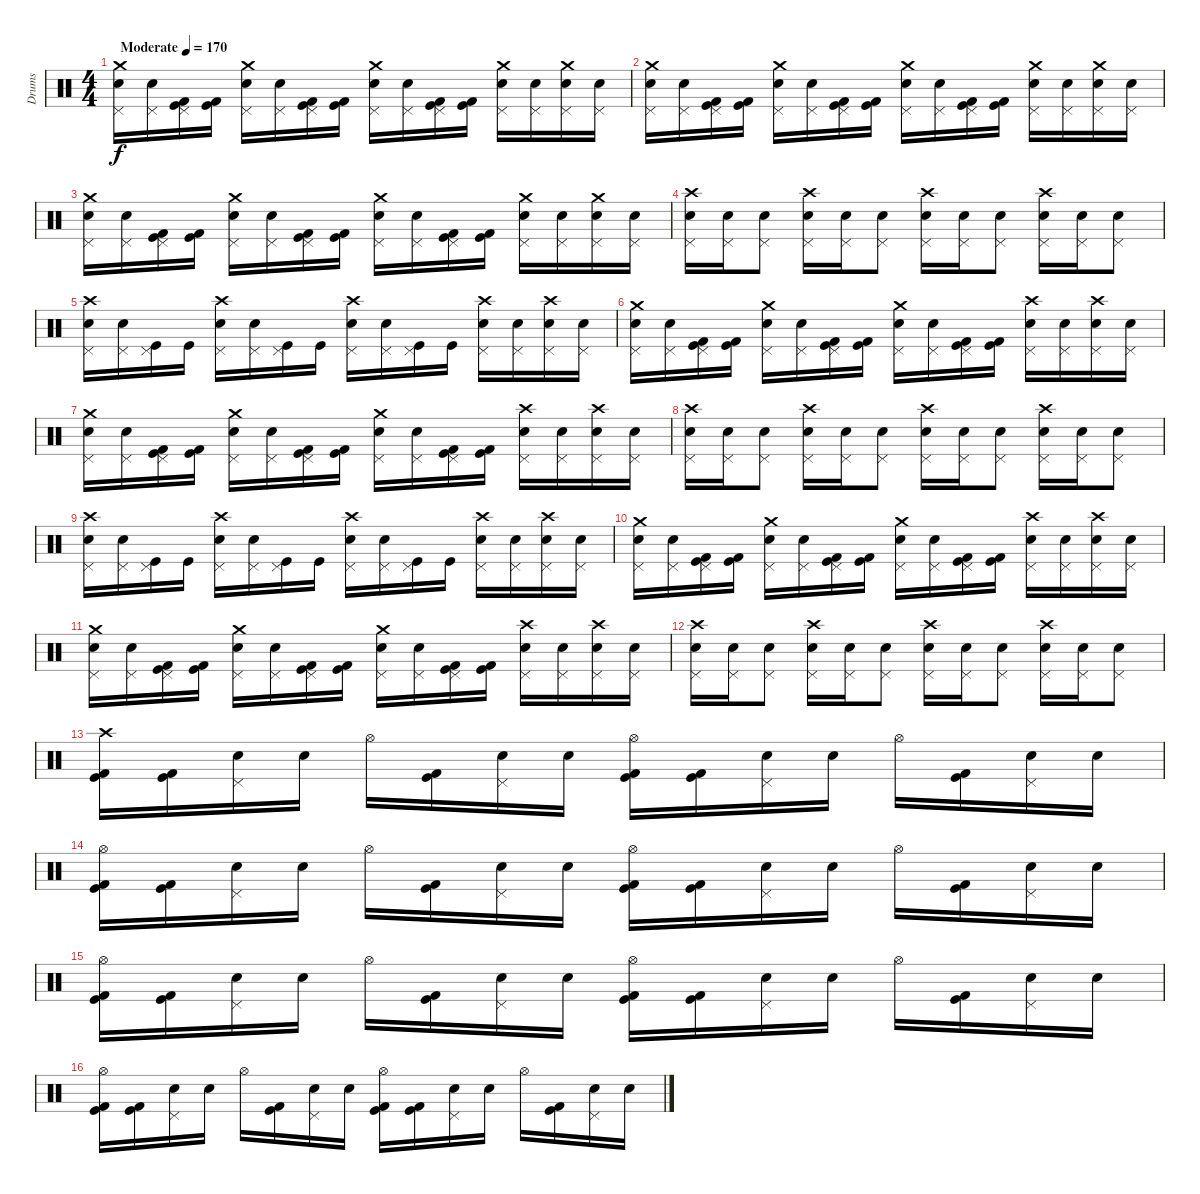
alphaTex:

\track ("Drums" "Drums") {instrument percussion}
\staff {score}
\articulation defaults
\ts (4 4)
\tempo (170 "Moderate")
\clef neutral
\ks c
("Crash medium (hit)" "Pedal Hi-Hat (hit)" "Electric Snare (hit)").16{dy f} ("Pedal Hi-Hat (hit)" "Electric Snare (hit)").16 ("Pedal Hi-Hat (hit)" "Kick (hit) 2" "Kick (hit)").16 ("Kick (hit) 2" "Kick (hit)").16 ("Crash medium (hit)" "Pedal Hi-Hat (hit)" "Electric Snare (hit)").16 ("Pedal Hi-Hat (hit)" "Electric Snare (hit)").16 ("Pedal Hi-Hat (hit)" "Kick (hit) 2" "Kick (hit)").16 ("Kick (hit) 2" "Kick (hit)").16 ("Crash medium (hit)" "Pedal Hi-Hat (hit)" "Electric Snare (hit)").16 ("Pedal Hi-Hat (hit)" "Electric Snare (hit)").16 ("Pedal Hi-Hat (hit)" "Kick (hit) 2" "Kick (hit)").16 ("Kick (hit) 2" "Kick (hit)").16 ("Crash medium (hit)" "Pedal Hi-Hat (hit)" "Electric Snare (hit)").16 ("Pedal Hi-Hat (hit)" "Electric Snare (hit)").16 ("Crash medium (hit)" "Pedal Hi-Hat (hit)" "Electric Snare (hit)").16 ("Pedal Hi-Hat (hit)" "Electric Snare (hit)").16 |
("Crash medium (hit)" "Pedal Hi-Hat (hit)" "Electric Snare (hit)").16 ("Pedal Hi-Hat (hit)" "Electric Snare (hit)").16 ("Pedal Hi-Hat (hit)" "Kick (hit) 2" "Kick (hit)").16 ("Kick (hit) 2" "Kick (hit)").16 ("Crash medium (hit)" "Pedal Hi-Hat (hit)" "Electric Snare (hit)").16 ("Pedal Hi-Hat (hit)" "Electric Snare (hit)").16 ("Pedal Hi-Hat (hit)" "Kick (hit) 2" "Kick (hit)").16 ("Kick (hit) 2" "Kick (hit)").16 ("Crash medium (hit)" "Pedal Hi-Hat (hit)" "Electric Snare (hit)").16 ("Pedal Hi-Hat (hit)" "Electric Snare (hit)").16 ("Pedal Hi-Hat (hit)" "Kick (hit) 2" "Kick (hit)").16 ("Kick (hit) 2" "Kick (hit)").16 ("Crash medium (hit)" "Pedal Hi-Hat (hit)" "Electric Snare (hit)").16 ("Pedal Hi-Hat (hit)" "Electric Snare (hit)").16 ("Crash medium (hit)" "Pedal Hi-Hat (hit)" "Electric Snare (hit)").16 ("Pedal Hi-Hat (hit)" "Electric Snare (hit)").16 |
("Crash medium (hit)" "Pedal Hi-Hat (hit)" "Electric Snare (hit)").16 ("Pedal Hi-Hat (hit)" "Electric Snare (hit)").16 ("Pedal Hi-Hat (hit)" "Kick (hit) 2" "Kick (hit)").16 ("Kick (hit) 2" "Kick (hit)").16 ("Crash medium (hit)" "Pedal Hi-Hat (hit)" "Electric Snare (hit)").16 ("Pedal Hi-Hat (hit)" "Electric Snare (hit)").16 ("Pedal Hi-Hat (hit)" "Kick (hit) 2" "Kick (hit)").16 ("Kick (hit) 2" "Kick (hit)").16 ("Crash medium (hit)" "Pedal Hi-Hat (hit)" "Electric Snare (hit)").16 ("Pedal Hi-Hat (hit)" "Electric Snare (hit)").16 ("Pedal Hi-Hat (hit)" "Kick (hit) 2" "Kick (hit)").16 ("Kick (hit) 2" "Kick (hit)").16 ("Crash medium (hit)" "Pedal Hi-Hat (hit)" "Electric Snare (hit)").16 ("Pedal Hi-Hat (hit)" "Electric Snare (hit)").16 ("Crash medium (hit)" "Pedal Hi-Hat (hit)" "Electric Snare (hit)").16 ("Pedal Hi-Hat (hit)" "Electric Snare (hit)").16 |
("Crash high (hit)" "Pedal Hi-Hat (hit)" "Electric Snare (hit)").16 ("Pedal Hi-Hat (hit)" "Electric Snare (hit)").16 ("Pedal Hi-Hat (hit)" "Electric Snare (hit)").8 ("Crash high (hit)" "Pedal Hi-Hat (hit)" "Electric Snare (hit)").16 ("Pedal Hi-Hat (hit)" "Electric Snare (hit)").16 ("Pedal Hi-Hat (hit)" "Electric Snare (hit)").8 ("Crash high (hit)" "Pedal Hi-Hat (hit)" "Electric Snare (hit)").16 ("Pedal Hi-Hat (hit)" "Electric Snare (hit)").16 ("Pedal Hi-Hat (hit)" "Electric Snare (hit)").8 ("Crash high (hit)" "Pedal Hi-Hat (hit)" "Electric Snare (hit)").16 ("Pedal Hi-Hat (hit)" "Electric Snare (hit)").16 ("Pedal Hi-Hat (hit)" "Electric Snare (hit)").8 |
("Crash high (hit)" "Pedal Hi-Hat (hit)" "Electric Snare (hit)").16 ("Pedal Hi-Hat (hit)" "Electric Snare (hit)").16 ("Pedal Hi-Hat (hit)" "Kick (hit)").16 "Kick (hit)".16 ("Crash high (hit)" "Pedal Hi-Hat (hit)" "Electric Snare (hit)").16 ("Pedal Hi-Hat (hit)" "Electric Snare (hit)").16 ("Pedal Hi-Hat (hit)" "Kick (hit)").16 "Kick (hit)".16 ("Crash high (hit)" "Pedal Hi-Hat (hit)" "Electric Snare (hit)").16 ("Pedal Hi-Hat (hit)" "Electric Snare (hit)").16 ("Pedal Hi-Hat (hit)" "Kick (hit)").16 "Kick (hit)".16 ("Crash high (hit)" "Pedal Hi-Hat (hit)" "Electric Snare (hit)").16 ("Pedal Hi-Hat (hit)" "Electric Snare (hit)").16 ("Crash high (hit)" "Pedal Hi-Hat (hit)" "Electric Snare (hit)").16 ("Pedal Hi-Hat (hit)" "Electric Snare (hit)").16 |
("Crash medium (hit)" "Pedal Hi-Hat (hit)" "Electric Snare (hit)").16 ("Pedal Hi-Hat (hit)" "Electric Snare (hit)").16 ("Pedal Hi-Hat (hit)" "Kick (hit) 2" "Kick (hit)").16 ("Kick (hit) 2" "Kick (hit)").16 ("Crash medium (hit)" "Pedal Hi-Hat (hit)" "Electric Snare (hit)").16 ("Pedal Hi-Hat (hit)" "Electric Snare (hit)").16 ("Pedal Hi-Hat (hit)" "Kick (hit) 2" "Kick (hit)").16 ("Kick (hit) 2" "Kick (hit)").16 ("Crash medium (hit)" "Pedal Hi-Hat (hit)" "Electric Snare (hit)").16 ("Pedal Hi-Hat (hit)" "Electric Snare (hit)").16 ("Pedal Hi-Hat (hit)" "Kick (hit) 2" "Kick (hit)").16 ("Kick (hit) 2" "Kick (hit)").16 ("Crash high (hit)" "Pedal Hi-Hat (hit)" "Electric Snare (hit)").16 ("Pedal Hi-Hat (hit)" "Electric Snare (hit)").16 ("Crash high (hit)" "Pedal Hi-Hat (hit)" "Electric Snare (hit)").16 ("Pedal Hi-Hat (hit)" "Electric Snare (hit)").16 |
("Crash medium (hit)" "Pedal Hi-Hat (hit)" "Electric Snare (hit)").16 ("Pedal Hi-Hat (hit)" "Electric Snare (hit)").16 ("Pedal Hi-Hat (hit)" "Kick (hit) 2" "Kick (hit)").16 ("Kick (hit) 2" "Kick (hit)").16 ("Crash medium (hit)" "Pedal Hi-Hat (hit)" "Electric Snare (hit)").16 ("Pedal Hi-Hat (hit)" "Electric Snare (hit)").16 ("Pedal Hi-Hat (hit)" "Kick (hit) 2" "Kick (hit)").16 ("Kick (hit) 2" "Kick (hit)").16 ("Crash medium (hit)" "Pedal Hi-Hat (hit)" "Electric Snare (hit)").16 ("Pedal Hi-Hat (hit)" "Electric Snare (hit)").16 ("Pedal Hi-Hat (hit)" "Kick (hit) 2" "Kick (hit)").16 ("Kick (hit) 2" "Kick (hit)").16 ("Crash high (hit)" "Pedal Hi-Hat (hit)" "Electric Snare (hit)").16 ("Pedal Hi-Hat (hit)" "Electric Snare (hit)").16 ("Crash high (hit)" "Pedal Hi-Hat (hit)" "Electric Snare (hit)").16 ("Pedal Hi-Hat (hit)" "Electric Snare (hit)").16 |
("Crash high (hit)" "Pedal Hi-Hat (hit)" "Electric Snare (hit)").16 ("Pedal Hi-Hat (hit)" "Electric Snare (hit)").16 ("Pedal Hi-Hat (hit)" "Electric Snare (hit)").8 ("Crash high (hit)" "Pedal Hi-Hat (hit)" "Electric Snare (hit)").16 ("Pedal Hi-Hat (hit)" "Electric Snare (hit)").16 ("Pedal Hi-Hat (hit)" "Electric Snare (hit)").8 ("Crash high (hit)" "Pedal Hi-Hat (hit)" "Electric Snare (hit)").16 ("Pedal Hi-Hat (hit)" "Electric Snare (hit)").16 ("Pedal Hi-Hat (hit)" "Electric Snare (hit)").8 ("Crash high (hit)" "Pedal Hi-Hat (hit)" "Electric Snare (hit)").16 ("Pedal Hi-Hat (hit)" "Electric Snare (hit)").16 ("Pedal Hi-Hat (hit)" "Electric Snare (hit)").8 |
("Crash high (hit)" "Pedal Hi-Hat (hit)" "Electric Snare (hit)").16 ("Pedal Hi-Hat (hit)" "Electric Snare (hit)").16 ("Pedal Hi-Hat (hit)" "Kick (hit)").16 "Kick (hit)".16 ("Crash high (hit)" "Pedal Hi-Hat (hit)" "Electric Snare (hit)").16 ("Pedal Hi-Hat (hit)" "Electric Snare (hit)").16 ("Pedal Hi-Hat (hit)" "Kick (hit)").16 "Kick (hit)".16 ("Crash high (hit)" "Pedal Hi-Hat (hit)" "Electric Snare (hit)").16 ("Pedal Hi-Hat (hit)" "Electric Snare (hit)").16 ("Pedal Hi-Hat (hit)" "Kick (hit)").16 "Kick (hit)".16 ("Crash high (hit)" "Pedal Hi-Hat (hit)" "Electric Snare (hit)").16 ("Pedal Hi-Hat (hit)" "Electric Snare (hit)").16 ("Crash high (hit)" "Pedal Hi-Hat (hit)" "Electric Snare (hit)").16 ("Pedal Hi-Hat (hit)" "Electric Snare (hit)").16 |
("Crash medium (hit)" "Pedal Hi-Hat (hit)" "Electric Snare (hit)").16 ("Pedal Hi-Hat (hit)" "Electric Snare (hit)").16 ("Pedal Hi-Hat (hit)" "Kick (hit) 2" "Kick (hit)").16 ("Kick (hit) 2" "Kick (hit)").16 ("Crash medium (hit)" "Pedal Hi-Hat (hit)" "Electric Snare (hit)").16 ("Pedal Hi-Hat (hit)" "Electric Snare (hit)").16 ("Pedal Hi-Hat (hit)" "Kick (hit) 2" "Kick (hit)").16 ("Kick (hit) 2" "Kick (hit)").16 ("Crash medium (hit)" "Pedal Hi-Hat (hit)" "Electric Snare (hit)").16 ("Pedal Hi-Hat (hit)" "Electric Snare (hit)").16 ("Pedal Hi-Hat (hit)" "Kick (hit) 2" "Kick (hit)").16 ("Kick (hit) 2" "Kick (hit)").16 ("Crash high (hit)" "Pedal Hi-Hat (hit)" "Electric Snare (hit)").16 ("Pedal Hi-Hat (hit)" "Electric Snare (hit)").16 ("Crash high (hit)" "Pedal Hi-Hat (hit)" "Electric Snare (hit)").16 ("Pedal Hi-Hat (hit)" "Electric Snare (hit)").16 |
("Crash medium (hit)" "Pedal Hi-Hat (hit)" "Electric Snare (hit)").16 ("Pedal Hi-Hat (hit)" "Electric Snare (hit)").16 ("Pedal Hi-Hat (hit)" "Kick (hit) 2" "Kick (hit)").16 ("Kick (hit) 2" "Kick (hit)").16 ("Crash medium (hit)" "Pedal Hi-Hat (hit)" "Electric Snare (hit)").16 ("Pedal Hi-Hat (hit)" "Electric Snare (hit)").16 ("Pedal Hi-Hat (hit)" "Kick (hit) 2" "Kick (hit)").16 ("Kick (hit) 2" "Kick (hit)").16 ("Crash medium (hit)" "Pedal Hi-Hat (hit)" "Electric Snare (hit)").16 ("Pedal Hi-Hat (hit)" "Electric Snare (hit)").16 ("Pedal Hi-Hat (hit)" "Kick (hit) 2" "Kick (hit)").16 ("Kick (hit) 2" "Kick (hit)").16 ("Crash high (hit)" "Pedal Hi-Hat (hit)" "Electric Snare (hit)").16 ("Pedal Hi-Hat (hit)" "Electric Snare (hit)").16 ("Crash high (hit)" "Pedal Hi-Hat (hit)" "Electric Snare (hit)").16 ("Pedal Hi-Hat (hit)" "Electric Snare (hit)").16 |
("Crash high (hit)" "Pedal Hi-Hat (hit)" "Electric Snare (hit)").16 ("Pedal Hi-Hat (hit)" "Electric Snare (hit)").16 ("Pedal Hi-Hat (hit)" "Electric Snare (hit)").8 ("Crash high (hit)" "Pedal Hi-Hat (hit)" "Electric Snare (hit)").16 ("Pedal Hi-Hat (hit)" "Electric Snare (hit)").16 ("Pedal Hi-Hat (hit)" "Electric Snare (hit)").8 ("Crash high (hit)" "Pedal Hi-Hat (hit)" "Electric Snare (hit)").16 ("Pedal Hi-Hat (hit)" "Electric Snare (hit)").16 ("Pedal Hi-Hat (hit)" "Electric Snare (hit)").8 ("Crash high (hit)" "Pedal Hi-Hat (hit)" "Electric Snare (hit)").16 ("Pedal Hi-Hat (hit)" "Electric Snare (hit)").16 ("Pedal Hi-Hat (hit)" "Electric Snare (hit)").8 |
("Crash high (hit)" "Kick (hit) 2" "Kick (hit)").16 ("Kick (hit) 2" "Kick (hit)").16 ("Pedal Hi-Hat (hit)" "Electric Snare (hit)").16 "Electric Snare (hit)".16 "Hi-Hat (open)".16 ("Kick (hit) 2" "Kick (hit)").16 ("Pedal Hi-Hat (hit)" "Electric Snare (hit)").16 "Electric Snare (hit)".16 ("Hi-Hat (open)" "Kick (hit) 2" "Kick (hit)").16 ("Kick (hit) 2" "Kick (hit)").16 ("Pedal Hi-Hat (hit)" "Electric Snare (hit)").16 "Electric Snare (hit)".16 "Hi-Hat (open)".16 ("Kick (hit) 2" "Kick (hit)").16 ("Pedal Hi-Hat (hit)" "Electric Snare (hit)").16 "Electric Snare (hit)".16 |
("Hi-Hat (open)" "Kick (hit) 2" "Kick (hit)").16 ("Kick (hit) 2" "Kick (hit)").16 ("Pedal Hi-Hat (hit)" "Electric Snare (hit)").16 "Electric Snare (hit)".16 "Hi-Hat (open)".16 ("Kick (hit) 2" "Kick (hit)").16 ("Pedal Hi-Hat (hit)" "Electric Snare (hit)").16 "Electric Snare (hit)".16 ("Hi-Hat (open)" "Kick (hit) 2" "Kick (hit)").16 ("Kick (hit) 2" "Kick (hit)").16 ("Pedal Hi-Hat (hit)" "Electric Snare (hit)").16 "Electric Snare (hit)".16 "Hi-Hat (open)".16 ("Kick (hit) 2" "Kick (hit)").16 ("Pedal Hi-Hat (hit)" "Electric Snare (hit)").16 "Electric Snare (hit)".16 |
("Hi-Hat (open)" "Kick (hit) 2" "Kick (hit)").16 ("Kick (hit) 2" "Kick (hit)").16 ("Pedal Hi-Hat (hit)" "Electric Snare (hit)").16 "Electric Snare (hit)".16 "Hi-Hat (open)".16 ("Kick (hit) 2" "Kick (hit)").16 ("Pedal Hi-Hat (hit)" "Electric Snare (hit)").16 "Electric Snare (hit)".16 ("Hi-Hat (open)" "Kick (hit) 2" "Kick (hit)").16 ("Kick (hit) 2" "Kick (hit)").16 ("Pedal Hi-Hat (hit)" "Electric Snare (hit)").16 "Electric Snare (hit)".16 "Hi-Hat (open)".16 ("Kick (hit) 2" "Kick (hit)").16 ("Pedal Hi-Hat (hit)" "Electric Snare (hit)").16 "Electric Snare (hit)".16 |
("Hi-Hat (open)" "Kick (hit) 2" "Kick (hit)").16 ("Kick (hit) 2" "Kick (hit)").16 ("Pedal Hi-Hat (hit)" "Electric Snare (hit)").16 "Electric Snare (hit)".16 "Hi-Hat (open)".16 ("Kick (hit) 2" "Kick (hit)").16 ("Pedal Hi-Hat (hit)" "Electric Snare (hit)").16 "Electric Snare (hit)".16 ("Hi-Hat (open)" "Kick (hit) 2" "Kick (hit)").16 ("Kick (hit) 2" "Kick (hit)").16 ("Pedal Hi-Hat (hit)" "Electric Snare (hit)").16 "Electric Snare (hit)".16 "Hi-Hat (open)".16 ("Kick (hit) 2" "Kick (hit)").16 ("Pedal Hi-Hat (hit)" "Electric Snare (hit)").16 "Electric Snare (hit)".16
